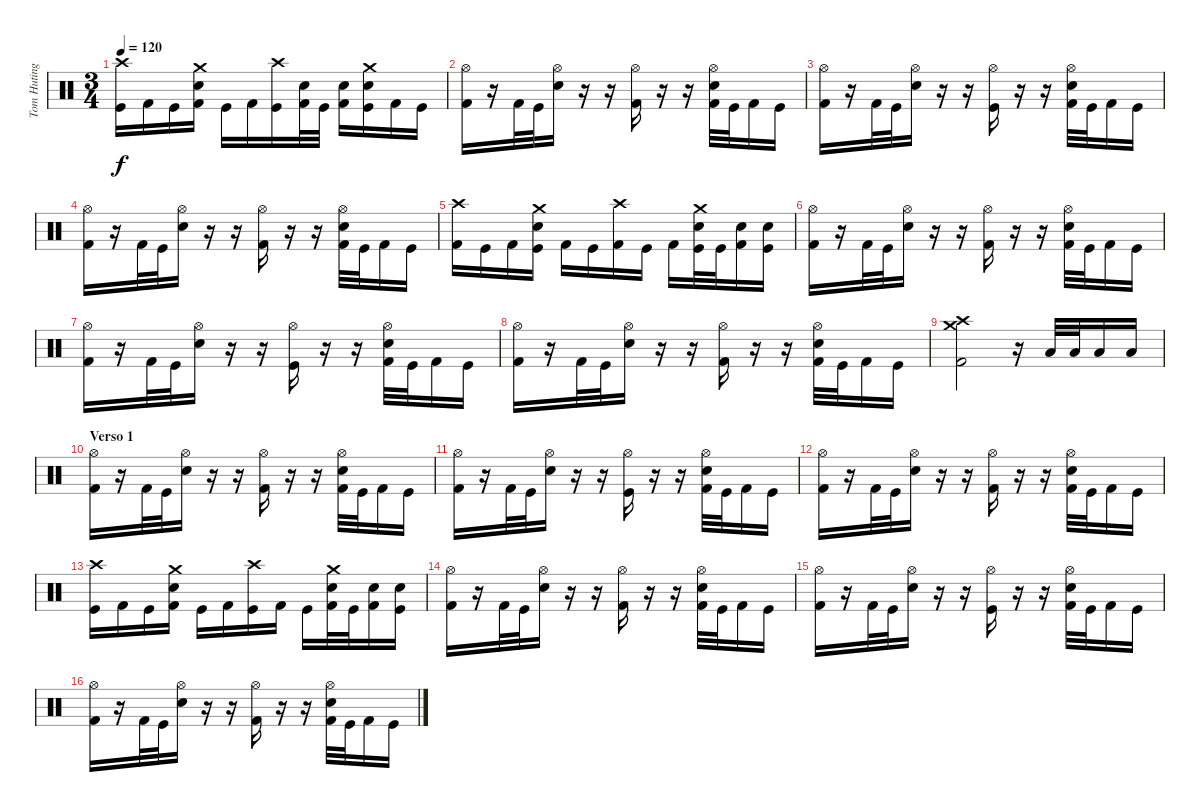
\track ("Tom Huting" "Tom Huting") {instrument percussion}
\staff {score}
\articulation defaults
\ts (3 4)
\tempo 120
\clef neutral
\ks c
("Kick (hit)" "Crash high (hit)").16{dy f} "Kick (hit) 2".16 "Kick (hit)".16 ("Kick (hit) 2" "Snare (hit) 2" "Crash medium (hit)").16 "Kick (hit)".16 "Kick (hit) 2".16 ("Kick (hit)" "Crash high (hit)").16 ("Kick (hit) 2" "Snare (hit) 2").32 "Kick (hit)".32 ("Kick (hit) 2" "Snare (hit) 2").16 ("Kick (hit)" "Snare (hit) 2" "Crash medium (hit)").16 "Kick (hit) 2".16 "Kick (hit)".16 |
("Kick (hit) 2" "Hi-Hat (open)").16 r.16 "Kick (hit) 2".32 "Kick (hit)".32 ("Snare (hit) 2" "Hi-Hat (open)").16 r.16 r.16 ("Kick (hit) 2" "Hi-Hat (open)").16 r.16 r.16 ("Kick (hit) 2" "Snare (hit) 2" "Hi-Hat (open)").32 "Kick (hit)".32 "Kick (hit) 2".16 "Kick (hit)".16 |
("Kick (hit) 2" "Hi-Hat (open)").16 r.16 "Kick (hit) 2".32 "Kick (hit)".32 ("Snare (hit) 2" "Hi-Hat (open)").16 r.16 r.16 ("Kick (hit)" "Hi-Hat (open)").16 r.16 r.16 ("Kick (hit) 2" "Snare (hit) 2" "Hi-Hat (open)").32 "Kick (hit)".32 "Kick (hit) 2".16 "Kick (hit)".16 |
("Kick (hit) 2" "Hi-Hat (open)").16 r.16 "Kick (hit) 2".32 "Kick (hit)".32 ("Snare (hit) 2" "Hi-Hat (open)").16 r.16 r.16 ("Kick (hit) 2" "Hi-Hat (open)").16 r.16 r.16 ("Kick (hit) 2" "Snare (hit) 2" "Hi-Hat (open)").32 "Kick (hit)".32 "Kick (hit) 2".16 "Kick (hit)".16 |
("Kick (hit) 2" "Crash high (hit)").16 "Kick (hit)".16 "Kick (hit) 2".16 ("Kick (hit)" "Snare (hit) 2" "Crash medium (hit)").16 "Kick (hit) 2".16 "Kick (hit)".16 ("Kick (hit) 2" "Crash high (hit)").16 "Kick (hit)".16 "Kick (hit) 2".16 ("Kick (hit)" "Snare (hit) 2" "Crash medium (hit)").32 "Kick (hit)".32 ("Kick (hit) 2" "Snare (hit) 2").16 ("Kick (hit)" "Snare (hit) 2").16 |
("Kick (hit) 2" "Hi-Hat (open)").16 r.16 "Kick (hit) 2".32 "Kick (hit)".32 ("Snare (hit) 2" "Hi-Hat (open)").16 r.16 r.16 ("Kick (hit) 2" "Hi-Hat (open)").16 r.16 r.16 ("Kick (hit) 2" "Snare (hit) 2" "Hi-Hat (open)").32 "Kick (hit)".32 "Kick (hit) 2".16 "Kick (hit)".16 |
("Kick (hit) 2" "Hi-Hat (open)").16 r.16 "Kick (hit) 2".32 "Kick (hit)".32 ("Snare (hit) 2" "Hi-Hat (open)").16 r.16 r.16 ("Kick (hit)" "Hi-Hat (open)").16 r.16 r.16 ("Kick (hit) 2" "Snare (hit) 2" "Hi-Hat (open)").32 "Kick (hit)".32 "Kick (hit) 2".16 "Kick (hit)".16 |
("Kick (hit) 2" "Hi-Hat (open)").16 r.16 "Kick (hit) 2".32 "Kick (hit)".32 ("Snare (hit) 2" "Hi-Hat (open)").16 r.16 r.16 ("Kick (hit) 2" "Hi-Hat (open)").16 r.16 r.16 ("Kick (hit) 2" "Snare (hit) 2" "Hi-Hat (open)").32 "Kick (hit)".32 "Kick (hit) 2".16 "Kick (hit)".16 |
("Kick (hit) 2" "Crash medium (hit)" "Crash high (hit)").2 r.16 "Low Tom (hit)".32 "Low Tom (hit)".32 "Low Tom (hit)".16 "Low Tom (hit)".16 |
\section ("" "Verso 1")
("Kick (hit) 2" "Hi-Hat (open)").16 r.16 "Kick (hit) 2".32 "Kick (hit)".32 ("Snare (hit) 2" "Hi-Hat (open)").16 r.16 r.16 ("Kick (hit) 2" "Hi-Hat (open)").16 r.16 r.16 ("Kick (hit) 2" "Snare (hit) 2" "Hi-Hat (open)").32 "Kick (hit)".32 "Kick (hit) 2".16 "Kick (hit)".16 |
("Kick (hit) 2" "Hi-Hat (open)").16 r.16 "Kick (hit) 2".32 "Kick (hit)".32 ("Snare (hit) 2" "Hi-Hat (open)").16 r.16 r.16 ("Kick (hit)" "Hi-Hat (open)").16 r.16 r.16 ("Kick (hit) 2" "Snare (hit) 2" "Hi-Hat (open)").32 "Kick (hit)".32 "Kick (hit) 2".16 "Kick (hit)".16 |
("Kick (hit) 2" "Hi-Hat (open)").16 r.16 "Kick (hit) 2".32 "Kick (hit)".32 ("Snare (hit) 2" "Hi-Hat (open)").16 r.16 r.16 ("Kick (hit) 2" "Hi-Hat (open)").16 r.16 r.16 ("Kick (hit) 2" "Snare (hit) 2" "Hi-Hat (open)").32 "Kick (hit)".32 "Kick (hit) 2".16 "Kick (hit)".16 |
("Kick (hit)" "Crash high (hit)").16 "Kick (hit) 2".16 "Kick (hit)".16 ("Kick (hit) 2" "Snare (hit) 2" "Crash medium (hit)").16 "Kick (hit)".16 "Kick (hit) 2".16 ("Kick (hit)" "Crash high (hit)").16 "Kick (hit) 2".16 "Kick (hit)".16 ("Kick (hit) 2" "Snare (hit) 2" "Crash medium (hit)").32 "Kick (hit)".32 ("Kick (hit) 2" "Snare (hit) 2").16 ("Kick (hit)" "Snare (hit) 2").16 |
("Kick (hit) 2" "Hi-Hat (open)").16 r.16 "Kick (hit) 2".32 "Kick (hit)".32 ("Snare (hit) 2" "Hi-Hat (open)").16 r.16 r.16 ("Kick (hit) 2" "Hi-Hat (open)").16 r.16 r.16 ("Kick (hit) 2" "Snare (hit) 2" "Hi-Hat (open)").32 "Kick (hit)".32 "Kick (hit) 2".16 "Kick (hit)".16 |
("Kick (hit) 2" "Hi-Hat (open)").16 r.16 "Kick (hit) 2".32 "Kick (hit)".32 ("Snare (hit) 2" "Hi-Hat (open)").16 r.16 r.16 ("Kick (hit)" "Hi-Hat (open)").16 r.16 r.16 ("Kick (hit) 2" "Snare (hit) 2" "Hi-Hat (open)").32 "Kick (hit)".32 "Kick (hit) 2".16 "Kick (hit)".16 |
("Kick (hit) 2" "Hi-Hat (open)").16 r.16 "Kick (hit) 2".32 "Kick (hit)".32 ("Snare (hit) 2" "Hi-Hat (open)").16 r.16 r.16 ("Kick (hit) 2" "Hi-Hat (open)").16 r.16 r.16 ("Kick (hit) 2" "Snare (hit) 2" "Hi-Hat (open)").32 "Kick (hit)".32 "Kick (hit) 2".16 "Kick (hit)".16
